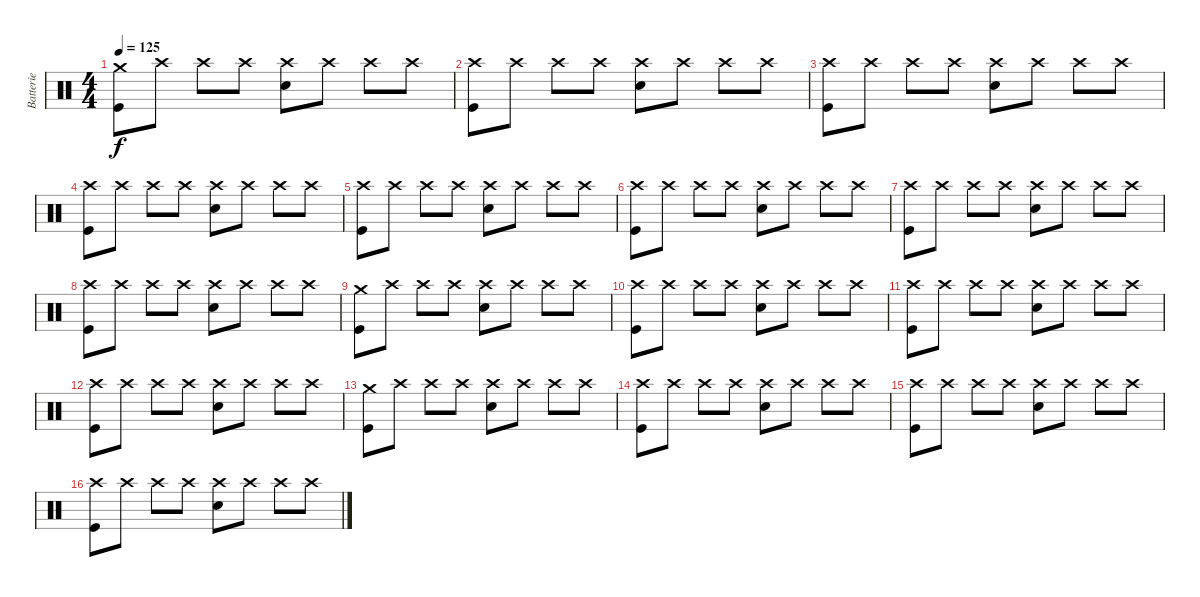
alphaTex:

\track ("Batterie" "Batterie") {instrument percussion}
\staff {score}
\articulation defaults
\ts (4 4)
\tempo 125
\clef neutral
\ks c
("Crash medium (hit)" "Kick (hit)").8{dy f} "Crash high (hit)".8 "Crash high (hit)".8 "Crash high (hit)".8 ("Crash high (hit)" "Electric Snare (hit)").8 "Crash high (hit)".8 "Crash high (hit)".8 "Crash high (hit)".8 |
("Crash high (hit)" "Kick (hit)").8 "Crash high (hit)".8 "Crash high (hit)".8 "Crash high (hit)".8 ("Crash high (hit)" "Electric Snare (hit)").8 "Crash high (hit)".8 "Crash high (hit)".8 "Crash high (hit)".8 |
("Crash high (hit)" "Kick (hit)").8 "Crash high (hit)".8 "Crash high (hit)".8 "Crash high (hit)".8 ("Crash high (hit)" "Electric Snare (hit)").8 "Crash high (hit)".8 "Crash high (hit)".8 "Crash high (hit)".8 |
("Crash high (hit)" "Kick (hit)").8 "Crash high (hit)".8 "Crash high (hit)".8 "Crash high (hit)".8 ("Crash high (hit)" "Electric Snare (hit)").8 "Crash high (hit)".8 "Crash high (hit)".8 "Crash high (hit)".8 |
("Crash high (hit)" "Kick (hit)").8 "Crash high (hit)".8 "Crash high (hit)".8 "Crash high (hit)".8 ("Crash high (hit)" "Electric Snare (hit)").8 "Crash high (hit)".8 "Crash high (hit)".8 "Crash high (hit)".8 |
("Crash high (hit)" "Kick (hit)").8 "Crash high (hit)".8 "Crash high (hit)".8 "Crash high (hit)".8 ("Crash high (hit)" "Electric Snare (hit)").8 "Crash high (hit)".8 "Crash high (hit)".8 "Crash high (hit)".8 |
("Crash high (hit)" "Kick (hit)").8 "Crash high (hit)".8 "Crash high (hit)".8 "Crash high (hit)".8 ("Crash high (hit)" "Electric Snare (hit)").8 "Crash high (hit)".8 "Crash high (hit)".8 "Crash high (hit)".8 |
("Crash high (hit)" "Kick (hit)").8 "Crash high (hit)".8 "Crash high (hit)".8 "Crash high (hit)".8 ("Crash high (hit)" "Electric Snare (hit)").8 "Crash high (hit)".8 "Crash high (hit)".8 "Crash high (hit)".8 |
("Crash medium (hit)" "Kick (hit)").8 "Crash high (hit)".8 "Crash high (hit)".8 "Crash high (hit)".8 ("Crash high (hit)" "Electric Snare (hit)").8 "Crash high (hit)".8 "Crash high (hit)".8 "Crash high (hit)".8 |
("Crash high (hit)" "Kick (hit)").8 "Crash high (hit)".8 "Crash high (hit)".8 "Crash high (hit)".8 ("Crash high (hit)" "Electric Snare (hit)").8 "Crash high (hit)".8 "Crash high (hit)".8 "Crash high (hit)".8 |
("Crash high (hit)" "Kick (hit)").8 "Crash high (hit)".8 "Crash high (hit)".8 "Crash high (hit)".8 ("Crash high (hit)" "Electric Snare (hit)").8 "Crash high (hit)".8 "Crash high (hit)".8 "Crash high (hit)".8 |
("Crash high (hit)" "Kick (hit)").8 "Crash high (hit)".8 "Crash high (hit)".8 "Crash high (hit)".8 ("Crash high (hit)" "Electric Snare (hit)").8 "Crash high (hit)".8 "Crash high (hit)".8 "Crash high (hit)".8 |
("Crash medium (hit)" "Kick (hit)").8 "Crash high (hit)".8 "Crash high (hit)".8 "Crash high (hit)".8 ("Crash high (hit)" "Electric Snare (hit)").8 "Crash high (hit)".8 "Crash high (hit)".8 "Crash high (hit)".8 |
("Crash high (hit)" "Kick (hit)").8 "Crash high (hit)".8 "Crash high (hit)".8 "Crash high (hit)".8 ("Crash high (hit)" "Electric Snare (hit)").8 "Crash high (hit)".8 "Crash high (hit)".8 "Crash high (hit)".8 |
("Crash high (hit)" "Kick (hit)").8 "Crash high (hit)".8 "Crash high (hit)".8 "Crash high (hit)".8 ("Crash high (hit)" "Electric Snare (hit)").8 "Crash high (hit)".8 "Crash high (hit)".8 "Crash high (hit)".8 |
("Crash high (hit)" "Kick (hit)").8 "Crash high (hit)".8 "Crash high (hit)".8 "Crash high (hit)".8 ("Crash high (hit)" "Electric Snare (hit)").8 "Crash high (hit)".8 "Crash high (hit)".8 "Crash high (hit)".8
